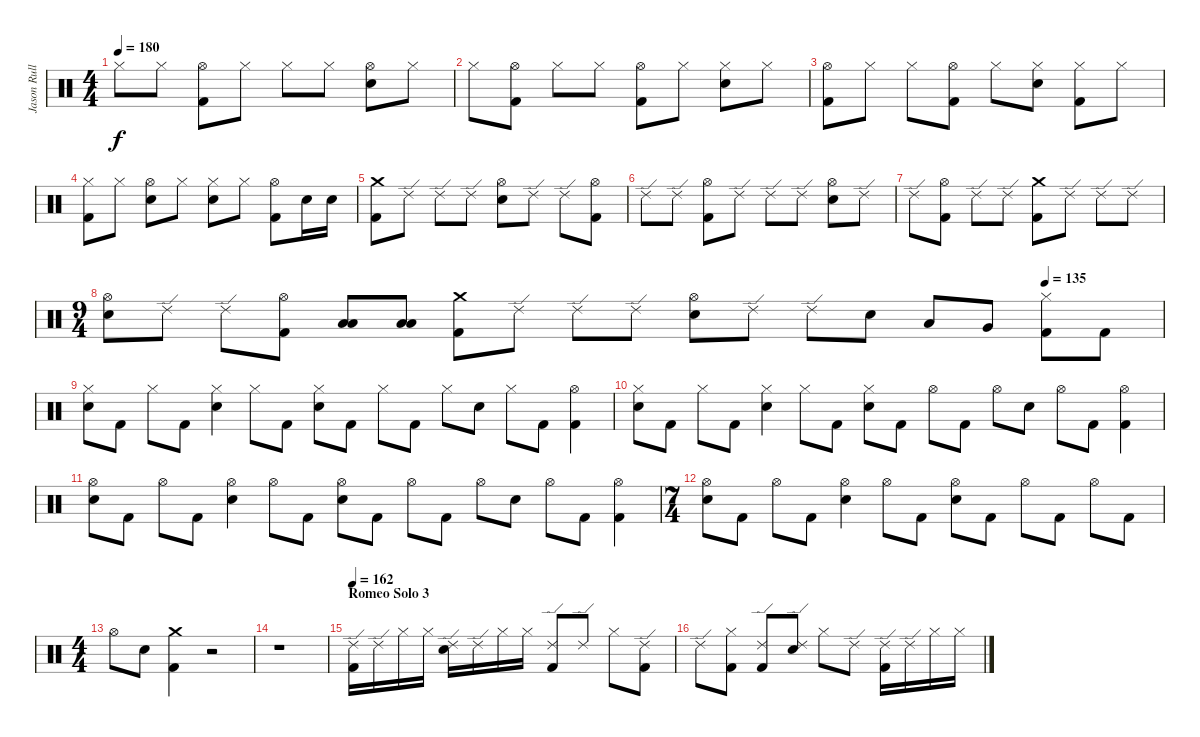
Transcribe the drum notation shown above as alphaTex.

\track ("Jason Rullo" "Jason Rull") {instrument percussion}
\staff {score}
\articulation defaults
\ts (4 4)
\tempo 180
\clef neutral
\ks c "Hi-Hat (closed)".8{dy f} "Hi-Hat (closed)".8
("Hi-Hat (open)" "Kick (hit) 2").8 "Hi-Hat (closed)".8 "Hi-Hat (closed)".8 "Hi-Hat (closed)".8 ("Hi-Hat (open)" "Electric Snare (hit)").8 "Hi-Hat (closed)".8 |
"Hi-Hat (closed)".8 ("Hi-Hat (open)" "Kick (hit) 2").8 "Hi-Hat (closed)".8 "Hi-Hat (closed)".8 ("Hi-Hat (open)" "Kick (hit) 2").8 "Hi-Hat (closed)".8 ("Electric Snare (hit)" "Hi-Hat (closed)").8 "Hi-Hat (closed)".8 |
("Kick (hit) 2" "Hi-Hat (open)").8 "Hi-Hat (closed)".8 "Hi-Hat (closed)".8 ("Hi-Hat (open)" "Kick (hit) 2").8 "Hi-Hat (closed)".8 ("Electric Snare (hit)" "Hi-Hat (closed)").8 ("Hi-Hat (closed)" "Kick (hit) 2").8 "Hi-Hat (closed)".8 |
("Hi-Hat (closed)" "Kick (hit) 2").8 "Hi-Hat (closed)".8 ("Hi-Hat (open)" "Electric Snare (hit)").8 "Hi-Hat (closed)".8 ("Hi-Hat (closed)" "Electric Snare (hit)").8 "Hi-Hat (closed)".8 ("Hi-Hat (open)" "Kick (hit) 2").8 "Electric Snare (hit)".16 "Electric Snare (hit)".16 |
("Crash medium (hit)" "Kick (hit) 2").8 "Ride (edge) 2".8 "Ride (edge) 2".8 "Ride (edge) 2".8 ("Hi-Hat (open)" "Electric Snare (hit)").8 "Ride (edge) 2".8 "Ride (edge) 2".8 ("Hi-Hat (open)" "Kick (hit) 2").8 |
"Ride (edge) 2".8 "Ride (edge) 2".8 ("Hi-Hat (open)" "Kick (hit) 2").8 "Ride (edge) 2".8 "Ride (edge) 2".8 "Ride (edge) 2".8 ("Hi-Hat (open)" "Electric Snare (hit)").8 "Ride (edge) 2".8 |
"Ride (edge) 2".8 ("Hi-Hat (open)" "Kick (hit) 2").8 "Ride (edge) 2".8 "Ride (edge) 2".8 ("Crash medium (hit)" "Kick (hit) 2").8 "Ride (edge) 2".8 "Ride (edge) 2".8 "Ride (edge) 2".8 |
\ts (9 4)
\tempo (135 0.8888888888888888)
("Hi-Hat (open)" "Electric Snare (hit)").8 "Ride (edge) 2".8 "Ride (edge) 2".8 ("Hi-Hat (open)" "Kick (hit) 2").8 ("Low Tom (hit)" "Low Floor Tom (hit)").8 ("Low Tom (hit)" "Low Floor Tom (hit)").8 ("Crash medium (hit)" "Kick (hit) 2").8 "Ride (edge) 2".8 "Ride (edge) 2".8 "Ride (edge) 2".8 ("Hi-Hat (open)" "Electric Snare (hit)").8 "Ride (edge) 2".8 "Ride (edge) 2".8 "Electric Snare (hit)".8 "Low Tom (hit)".8 "Very Low Tom (hit)".8 ("Hi-Hat (closed)" "Kick (hit) 2").8 "Kick (hit) 2".8 |
("Hi-Hat (closed)" "Electric Snare (hit)").8 "Kick (hit) 2".8 "Hi-Hat (closed)".8 "Kick (hit) 2".8 ("Hi-Hat (closed)" "Electric Snare (hit)").4 "Hi-Hat (closed)".8 "Kick (hit) 2".8 ("Hi-Hat (closed)" "Electric Snare (hit)").8 "Kick (hit) 2".8 "Hi-Hat (closed)".8 "Kick (hit) 2".8 "Hi-Hat (closed)".8 "Electric Snare (hit)".8 "Hi-Hat (closed)".8 "Kick (hit) 2".8 ("Hi-Hat (open)" "Kick (hit) 2").4 |
("Hi-Hat (closed)" "Electric Snare (hit)").8 "Kick (hit) 2".8 "Hi-Hat (closed)".8 "Kick (hit) 2".8 ("Hi-Hat (closed)" "Electric Snare (hit)").4 "Hi-Hat (closed)".8 "Kick (hit) 2".8 ("Hi-Hat (closed)" "Electric Snare (hit)").8 "Kick (hit) 2".8 "Hi-Hat (open)".8 "Kick (hit) 2".8 "Hi-Hat (open)".8 "Electric Snare (hit)".8 "Hi-Hat (open)".8 "Kick (hit) 2".8 ("Hi-Hat (open)" "Kick (hit) 2").4 |
("Hi-Hat (open)" "Electric Snare (hit)").8 "Kick (hit) 2".8 "Hi-Hat (open)".8 "Kick (hit) 2".8 ("Hi-Hat (open)" "Electric Snare (hit)").4 "Hi-Hat (open)".8 "Kick (hit) 2".8 ("Hi-Hat (open)" "Electric Snare (hit)").8 "Kick (hit) 2".8 "Hi-Hat (open)".8 "Kick (hit) 2".8 "Hi-Hat (open)".8 "Electric Snare (hit)".8 "Hi-Hat (open)".8 "Kick (hit) 2".8 ("Hi-Hat (open)" "Kick (hit) 2").4 |
\ts (7 4)
("Hi-Hat (open)" "Electric Snare (hit)").8 "Kick (hit) 2".8 "Hi-Hat (open)".8 "Kick (hit) 2".8 ("Hi-Hat (open)" "Electric Snare (hit)").4 "Hi-Hat (open)".8 "Kick (hit) 2".8 ("Hi-Hat (open)" "Electric Snare (hit)").8 "Kick (hit) 2".8 "Hi-Hat (open)".8 "Kick (hit) 2".8 "Hi-Hat (open)".8 "Kick (hit) 2".8 |
\ts (4 4)
"Hi-Hat (open)".8 "Electric Snare (hit)".8 ("Crash medium (hit)" "Kick (hit) 2").4 r.2 |
r.1 |
\section ("" "Romeo Solo 3")
\tempo 162
("Ride (edge) 2" "Kick (hit) 2").16 "Ride (edge) 2".16 "Hi-Hat (closed)".16 "Hi-Hat (closed)".16 ("Ride (edge) 2" "Electric Snare (hit)").16 "Ride (edge) 2".16 "Hi-Hat (closed)".16 "Hi-Hat (closed)".16 ("Ride (edge) 2" "Kick (hit) 2").8 "Ride (edge) 2".8 "Hi-Hat (closed)".8 ("Ride (edge) 2" "Kick (hit) 2").8 |
"Ride (edge) 2".8 ("Hi-Hat (closed)" "Kick (hit) 2").8 ("Ride (edge) 2" "Kick (hit) 2").8 ("Ride (edge) 2" "Electric Snare (hit)").8 "Hi-Hat (closed)".8 "Ride (edge) 2".8 ("Ride (edge) 2" "Kick (hit) 2").16 "Ride (edge) 2".16 "Hi-Hat (closed)".16 "Hi-Hat (closed)".16
